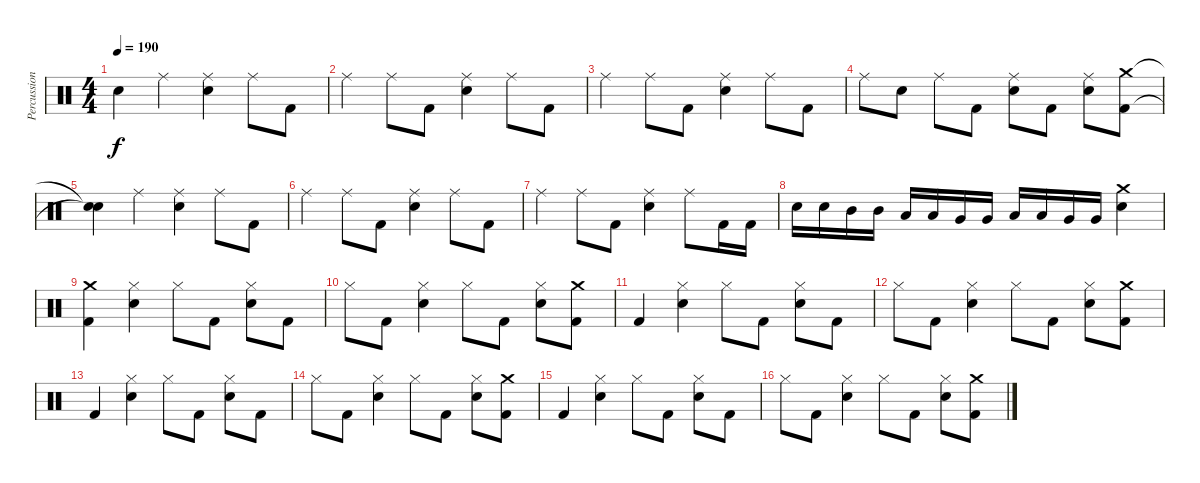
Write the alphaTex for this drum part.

\track ("Percussion" "Percussion") {instrument percussion}
\staff {score}
\articulation defaults
\ts (4 4)
\tempo 190
\clef neutral
\ks c "Snare (hit)"{t}.4{dy f} "Ride (middle)".4
("Ride (middle)" "Snare (hit) 2").4 "Ride (middle)".8 "Kick (hit) 2".8 |
"Ride (middle)".4 "Ride (middle)".8 "Kick (hit) 2".8 ("Ride (middle)" "Snare (hit) 2").4 "Ride (middle)".8 "Kick (hit) 2".8 |
"Ride (middle)".4 "Ride (middle)".8 "Kick (hit) 2".8 ("Ride (middle)" "Snare (hit) 2").4 "Ride (middle)".8 "Kick (hit) 2".8 |
"Ride (middle)".8 "Snare (hit) 2".8 "Ride (middle)".8 "Kick (hit) 2".8 ("Ride (middle)" "Snare (hit) 2").8 "Kick (hit) 2".8 ("Ride (middle)" "Snare (hit) 2").8 ("Crash medium (hit)" "Kick (hit) 2").8 |
("Snare (hit)"{t} "Snare (hit)"{t}).4 "Ride (middle)".4 ("Ride (middle)" "Snare (hit) 2").4 "Ride (middle)".8 "Kick (hit) 2".8 |
"Ride (middle)".4 "Ride (middle)".8 "Kick (hit) 2".8 ("Ride (middle)" "Snare (hit) 2").4 "Ride (middle)".8 "Kick (hit) 2".8 |
"Ride (middle)".4 "Ride (middle)".8 "Kick (hit) 2".8 ("Ride (middle)" "Snare (hit) 2").4 "Ride (middle)".8 "Kick (hit) 2".16 "Kick (hit) 2".16 |
"Snare (hit) 2".16 "Snare (hit) 2".16 "Mid Tom (hit)".16 "Mid Tom (hit)".16 "Low Tom (hit)".16 "Low Tom (hit)".16 "Very Low Tom (hit)".16 "Very Low Tom (hit)".16 "Low Floor Tom (hit)".16 "Low Floor Tom (hit)".16 "Very Low Tom (hit)".16 "Very Low Tom (hit)".16 ("Crash medium (hit)" "Snare (hit) 2").4 |
("Crash medium (hit)" "Kick (hit) 2").4 ("Hi-Hat (closed)" "Snare (hit) 2").4 "Hi-Hat (closed)".8 "Kick (hit) 2".8 ("Hi-Hat (closed)" "Snare (hit) 2").8 "Kick (hit) 2".8 |
"Hi-Hat (closed)".8 "Kick (hit) 2".8 ("Hi-Hat (closed)" "Snare (hit) 2").4 "Hi-Hat (closed)".8 "Kick (hit) 2".8 ("Hi-Hat (closed)" "Snare (hit) 2").8 ("Crash medium (hit)" "Kick (hit) 2").8 |
"Kick (hit) 2".4 ("Hi-Hat (closed)" "Snare (hit) 2").4 "Hi-Hat (closed)".8 "Kick (hit) 2".8 ("Hi-Hat (closed)" "Snare (hit) 2").8 "Kick (hit) 2".8 |
"Hi-Hat (closed)".8 "Kick (hit) 2".8 ("Hi-Hat (closed)" "Snare (hit) 2").4 "Hi-Hat (closed)".8 "Kick (hit) 2".8 ("Hi-Hat (closed)" "Snare (hit) 2").8 ("Crash medium (hit)" "Kick (hit) 2").8 |
"Kick (hit) 2".4 ("Hi-Hat (closed)" "Snare (hit) 2").4 "Hi-Hat (closed)".8 "Kick (hit) 2".8 ("Hi-Hat (closed)" "Snare (hit) 2").8 "Kick (hit) 2".8 |
"Hi-Hat (closed)".8 "Kick (hit) 2".8 ("Hi-Hat (closed)" "Snare (hit) 2").4 "Hi-Hat (closed)".8 "Kick (hit) 2".8 ("Hi-Hat (closed)" "Snare (hit) 2").8 ("Crash medium (hit)" "Kick (hit) 2").8 |
"Kick (hit) 2".4 ("Hi-Hat (closed)" "Snare (hit) 2").4 "Hi-Hat (closed)".8 "Kick (hit) 2".8 ("Hi-Hat (closed)" "Snare (hit) 2").8 "Kick (hit) 2".8 |
"Hi-Hat (closed)".8 "Kick (hit) 2".8 ("Hi-Hat (closed)" "Snare (hit) 2").4 "Hi-Hat (closed)".8 "Kick (hit) 2".8 ("Hi-Hat (closed)" "Snare (hit) 2").8 ("Crash medium (hit)" "Kick (hit) 2").8
